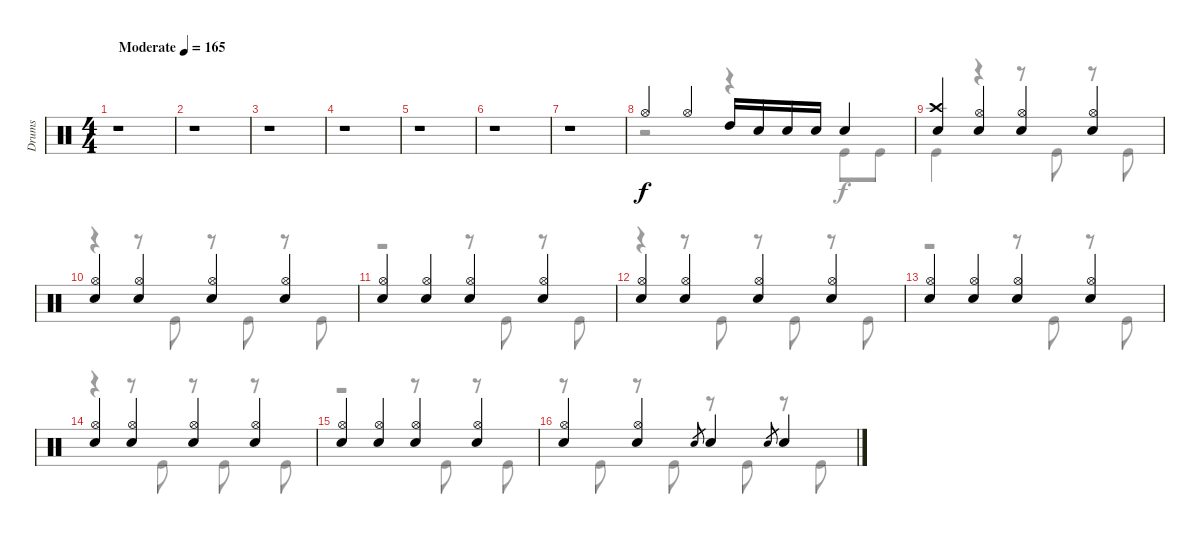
\track ("Drums" "Drums") {instrument percussion}
\staff {score}
\articulation defaults
\voice
\ts (4 4)
\tempo (165 "Moderate")
\clef neutral
\ks c
r.1{dy f} |
r.1 |
r.1 |
r.1 |
r.1 |
r.1 |
r.1 |
"Hi-Hat (open)".4{beam Up} "Hi-Hat (open)".4{beam Up} "High Tom (hit)".16{beam Up} "Snare (hit) 2".16{beam Up} "Snare (hit) 2".16{beam Up} "Snare (hit) 2".16{beam Up} "Snare (hit) 2".4{beam Up} |
("Crash high (hit)" "Snare (hit) 2").4{beam Up} ("Hi-Hat (open)" "Snare (hit) 2").4{beam Up} ("Hi-Hat (open)" "Snare (hit) 2").4{beam Up} ("Hi-Hat (open)" "Snare (hit) 2").4{beam Up} |
("Hi-Hat (open)" "Snare (hit) 2").4{beam Up} ("Hi-Hat (open)" "Snare (hit) 2").4{beam Up} ("Hi-Hat (open)" "Snare (hit) 2").4{beam Up} ("Hi-Hat (open)" "Snare (hit) 2").4{beam Up} |
("Hi-Hat (open)" "Snare (hit) 2").4{beam Up} ("Hi-Hat (open)" "Snare (hit) 2").4{beam Up} ("Hi-Hat (open)" "Snare (hit) 2").4{beam Up} ("Hi-Hat (open)" "Snare (hit) 2").4{beam Up} |
("Hi-Hat (open)" "Snare (hit) 2").4{beam Up} ("Hi-Hat (open)" "Snare (hit) 2").4{beam Up} ("Hi-Hat (open)" "Snare (hit) 2").4{beam Up} ("Hi-Hat (open)" "Snare (hit) 2").4{beam Up} |
("Hi-Hat (open)" "Snare (hit) 2").4{beam Up} ("Hi-Hat (open)" "Snare (hit) 2").4{beam Up} ("Hi-Hat (open)" "Snare (hit) 2").4{beam Up} ("Hi-Hat (open)" "Snare (hit) 2").4{beam Up} |
("Hi-Hat (open)" "Snare (hit) 2").4{beam Up} ("Hi-Hat (open)" "Snare (hit) 2").4{beam Up} ("Hi-Hat (open)" "Snare (hit) 2").4{beam Up} ("Hi-Hat (open)" "Snare (hit) 2").4{beam Up} |
("Hi-Hat (open)" "Snare (hit) 2").4{beam Up} ("Hi-Hat (open)" "Snare (hit) 2").4{beam Up} ("Hi-Hat (open)" "Snare (hit) 2").4{beam Up} ("Hi-Hat (open)" "Snare (hit) 2").4{beam Up} |
("Hi-Hat (open)" "Snare (hit) 2").4{beam Up} ("Hi-Hat (open)" "Snare (hit) 2").4{beam Up} "Snare (hit) 2".8{gr} "Snare (hit) 2".4{beam Up} "Snare (hit) 2".8{gr} "Snare (hit) 2".4{beam Up}
\voice
\clef neutral
\ottava regular
\simile none
\ks c
r.1{dy f} |
r.1 |
r.1 |
r.1 |
r.1 |
r.1 |
r.1 |
r.2 r.4 "Kick (hit)".8 "Kick (hit)".8 |
"Kick (hit)".4 r.4 r.8 "Kick (hit)".8 r.8 "Kick (hit)".8 |
r.4 r.8 "Kick (hit)".8 r.8 "Kick (hit)".8 r.8 "Kick (hit)".8 |
r.2 r.8 "Kick (hit)".8 r.8 "Kick (hit)".8 |
r.4 r.8 "Kick (hit)".8 r.8 "Kick (hit)".8 r.8 "Kick (hit)".8 |
r.2 r.8 "Kick (hit)".8 r.8 "Kick (hit)".8 |
r.4 r.8 "Kick (hit)".8 r.8 "Kick (hit)".8 r.8 "Kick (hit)".8 |
r.2 r.8 "Kick (hit)".8 r.8 "Kick (hit)".8 |
r.8 "Kick (hit)".8 r.8 "Kick (hit)".8 r.8 "Kick (hit)".8 r.8 "Kick (hit)".8
